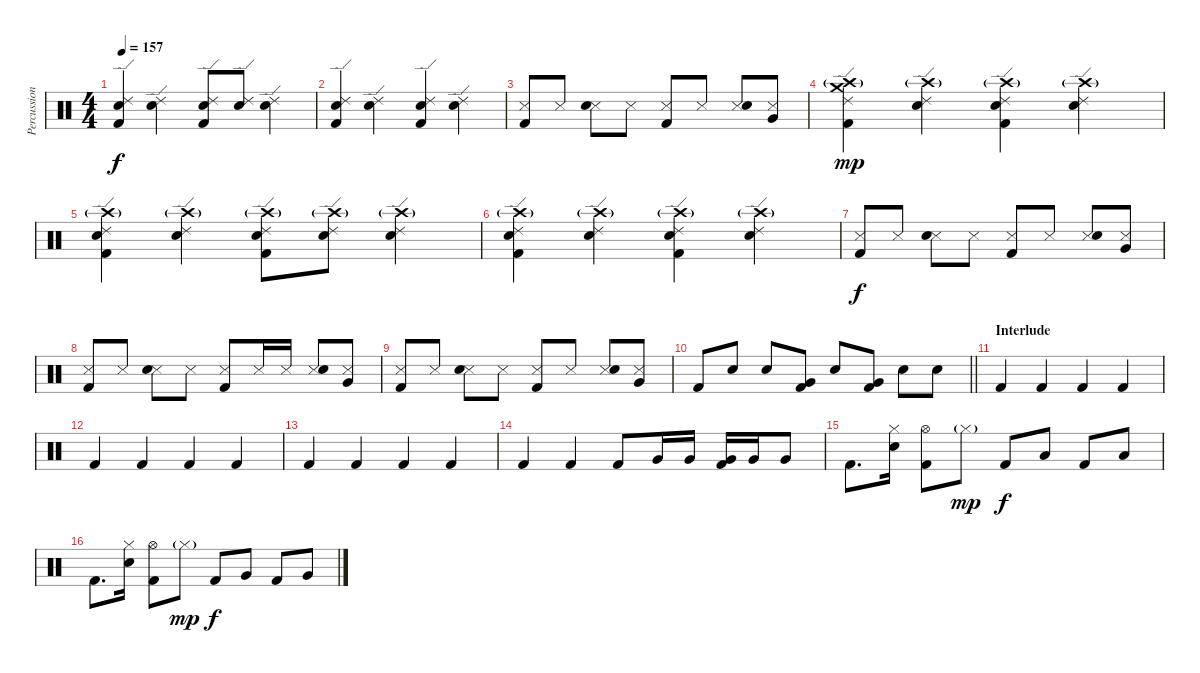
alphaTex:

\track ("Percussion" "Percussion") {instrument percussion}
\staff {score}
\articulation defaults
\ts (4 4)
\tempo 157
\clef neutral
\ks c
("Ride (edge) 2" "Snare (hit) 2" "Kick (hit) 2").4{dy f} ("Ride (edge) 2" "Snare (hit) 2").4 ("Ride (edge) 2" "Snare (hit) 2" "Kick (hit) 2").8 ("Ride (edge) 2" "Snare (hit) 2").8 ("Ride (edge) 2" "Snare (hit) 2").4 |
("Ride (edge) 2" "Snare (hit) 2" "Kick (hit) 2").4 ("Ride (edge) 2" "Snare (hit) 2").4 ("Ride (edge) 2" "Snare (hit) 2" "Kick (hit) 2").4 ("Ride (edge) 2" "Snare (hit) 2").4 |
("Metronome (hit)" "Kick (hit) 2").8 "Metronome (hit)".8 ("Metronome (hit)" "Snare (hit) 2").8 "Metronome (hit)".8 ("Metronome (hit)" "Kick (hit) 2").8 "Metronome (hit)".8 ("Metronome (hit)" "Snare (hit) 2").8 ("Metronome (hit)" "Very Low Tom (hit)").8 |
("Crash medium (hit)" "Ride (edge) 2" "Crash high (hit)"{g} "Kick (hit) 2").4{dy mp} ("Ride (edge) 2" "Crash high (hit)"{g} "Snare (hit) 2").4 ("Ride (edge) 2" "Crash high (hit)"{g} "Snare (hit) 2" "Kick (hit) 2").4 ("Ride (edge) 2" "Crash high (hit)"{g} "Snare (hit) 2").4 |
("Ride (edge) 2" "Crash high (hit)"{g} "Snare (hit) 2" "Kick (hit) 2").4 ("Ride (edge) 2" "Crash high (hit)"{g} "Snare (hit) 2").4 ("Ride (edge) 2" "Crash high (hit)"{g} "Snare (hit) 2" "Kick (hit) 2").8 ("Ride (edge) 2" "Crash high (hit)"{g} "Snare (hit) 2").8 ("Ride (edge) 2" "Crash high (hit)"{g} "Snare (hit) 2").4 |
("Ride (edge) 2" "Crash high (hit)"{g} "Snare (hit) 2" "Kick (hit) 2").4 ("Ride (edge) 2" "Crash high (hit)"{g} "Snare (hit) 2").4 ("Ride (edge) 2" "Crash high (hit)"{g} "Snare (hit) 2" "Kick (hit) 2").4 ("Ride (edge) 2" "Crash high (hit)"{g} "Snare (hit) 2").4 |
("Metronome (hit)" "Kick (hit) 2").8{dy f} "Metronome (hit)".8 ("Metronome (hit)" "Snare (hit) 2").8 "Metronome (hit)".8 ("Metronome (hit)" "Kick (hit) 2").8 "Metronome (hit)".8 ("Metronome (hit)" "Snare (hit) 2").8 ("Metronome (hit)" "Very Low Tom (hit)").8 |
("Metronome (hit)" "Kick (hit) 2").8 "Metronome (hit)".8 ("Metronome (hit)" "Snare (hit) 2").8 "Metronome (hit)".8 ("Metronome (hit)" "Kick (hit) 2").8 "Metronome (hit)".16 "Metronome (hit)".16 ("Metronome (hit)" "Snare (hit) 2").8 ("Metronome (hit)" "Very Low Tom (hit)").8 |
("Metronome (hit)" "Kick (hit) 2").8 "Metronome (hit)".8 ("Metronome (hit)" "Snare (hit) 2").8 "Metronome (hit)".8 ("Metronome (hit)" "Kick (hit) 2").8 "Metronome (hit)".8 ("Metronome (hit)" "Snare (hit) 2").8 ("Metronome (hit)" "Very Low Tom (hit)").8 |
\barLineRight lightlight "Kick (hit) 2".8 "Snare (hit) 2".8 "Snare (hit) 2".8
("Very Low Tom (hit)" "Kick (hit) 2").8 "Snare (hit) 2".8 ("Very Low Tom (hit)" "Kick (hit) 2").8 "Snare (hit) 2".8 "Snare (hit) 2".8 |
\section ("" "Interlude")
"Kick (hit) 2".4 "Kick (hit) 2".4 "Kick (hit) 2".4 "Kick (hit) 2".4 |
"Kick (hit) 2".4 "Kick (hit) 2".4 "Kick (hit) 2".4 "Kick (hit) 2".4 |
"Kick (hit) 2".4 "Kick (hit) 2".4 "Kick (hit) 2".4 "Kick (hit) 2".4 |
"Kick (hit) 2".4 "Kick (hit) 2".4 "Kick (hit) 2".8 "Very Low Tom (hit)".16 "Very Low Tom (hit)".16 ("Very Low Tom (hit)" "Kick (hit) 2").16 "Very Low Tom (hit)".16 "Very Low Tom (hit)".8 |
"Kick (hit) 2".8{d} ("Hi-Hat (closed)" "Snare (hit) 2").16 ("Hi-Hat (open)" "Kick (hit) 2").8 "Hi-Hat (closed)"{g}.8{dy mp} "Kick (hit) 2".8{dy f} "Low Tom (hit)".8 "Kick (hit) 2".8 "Low Tom (hit)".8 |
"Kick (hit) 2".8{d} ("Hi-Hat (closed)" "Snare (hit) 2").16 ("Hi-Hat (open)" "Kick (hit) 2").8 "Hi-Hat (closed)"{g}.8{dy mp} "Kick (hit) 2".8{dy f} "Very Low Tom (hit)".8 "Kick (hit) 2".8 "Very Low Tom (hit)".8
